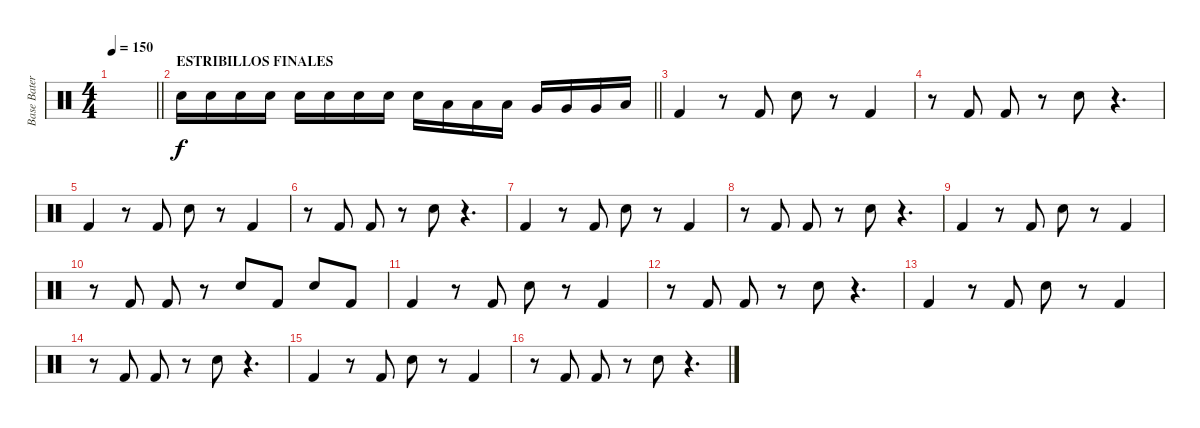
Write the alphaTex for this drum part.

\track ("Base Batería" "Base Bater") {instrument percussion}
\staff {score}
\articulation defaults
\ts (4 4)
\tempo 150
\clef neutral
\barLineRight lightlight
\ks c
|
\section ("" "ESTRIBILLOS FINALES")
\barLineRight lightlight "Electric Snare (hit)".16 "Electric Snare (hit)".16 "Electric Snare (hit)".16 "Electric Snare (hit)".16 "Electric Snare (hit)".16 "Electric Snare (hit)".16 "Electric Snare (hit)".16 "Electric Snare (hit)".16 "Electric Snare (hit)".16 "Low Tom (hit)".16 "Low Tom (hit)".16 "Low Tom (hit)".16 "Very Low Tom (hit)".16 "Very Low Tom (hit)".16 "Very Low Tom (hit)".16 "Low Floor Tom (hit)".16
|
"Kick (hit) 2".4 r.8 "Kick (hit) 2".8 "Electric Snare (hit)".8 r.8 "Kick (hit) 2".4 |
r.8 "Kick (hit) 2".8 "Kick (hit) 2".8 r.8 "Electric Snare (hit)".8 r.4{d} |
"Kick (hit) 2".4 r.8 "Kick (hit) 2".8 "Electric Snare (hit)".8 r.8 "Kick (hit) 2".4 |
r.8 "Kick (hit) 2".8 "Kick (hit) 2".8 r.8 "Electric Snare (hit)".8 r.4{d} |
"Kick (hit) 2".4 r.8 "Kick (hit) 2".8 "Electric Snare (hit)".8 r.8 "Kick (hit) 2".4 |
r.8 "Kick (hit) 2".8 "Kick (hit) 2".8 r.8 "Electric Snare (hit)".8 r.4{d} |
"Kick (hit) 2".4 r.8 "Kick (hit) 2".8 "Electric Snare (hit)".8 r.8 "Kick (hit) 2".4 |
r.8 "Kick (hit) 2".8 "Kick (hit) 2".8 r.8 "Electric Snare (hit)".8 "Kick (hit) 2".8 "Electric Snare (hit)".8 "Kick (hit) 2".8 |
"Kick (hit) 2".4 r.8 "Kick (hit) 2".8 "Electric Snare (hit)".8 r.8 "Kick (hit) 2".4 |
r.8 "Kick (hit) 2".8 "Kick (hit) 2".8 r.8 "Electric Snare (hit)".8 r.4{d} |
"Kick (hit) 2".4 r.8 "Kick (hit) 2".8 "Electric Snare (hit)".8 r.8 "Kick (hit) 2".4 |
r.8 "Kick (hit) 2".8 "Kick (hit) 2".8 r.8 "Electric Snare (hit)".8 r.4{d} |
"Kick (hit) 2".4 r.8 "Kick (hit) 2".8 "Electric Snare (hit)".8 r.8 "Kick (hit) 2".4 |
r.8 "Kick (hit) 2".8 "Kick (hit) 2".8 r.8 "Electric Snare (hit)".8 r.4{d}
